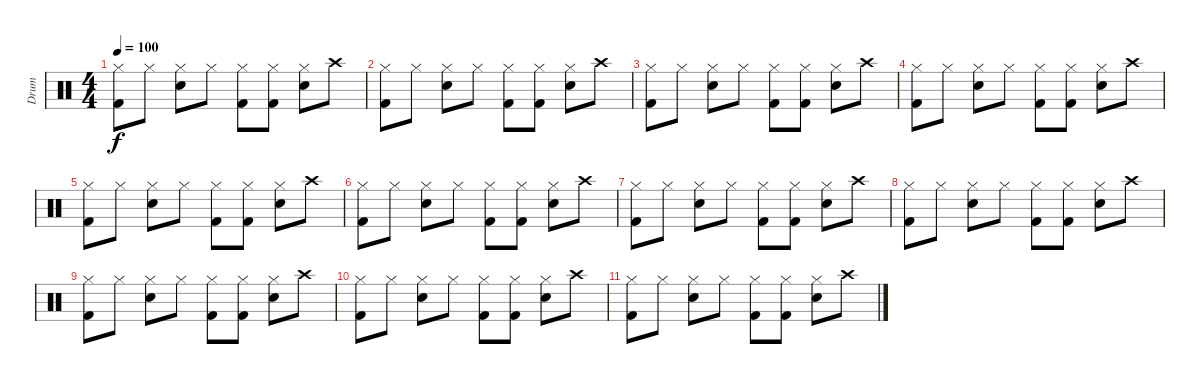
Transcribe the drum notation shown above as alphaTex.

\track ("Drum" "Drum") {instrument percussion}
\staff {score}
\articulation defaults
\ts (4 4)
\tempo 100
\clef neutral
\ks c
("Hi-Hat (closed)" "Kick (hit) 2").8{dy f} "Hi-Hat (closed)".8 ("Hi-Hat (closed)" "Snare (hit) 2").8 "Hi-Hat (closed)".8 ("Hi-Hat (closed)" "Kick (hit) 2").8 ("Hi-Hat (closed)" "Kick (hit) 2").8 ("Hi-Hat (closed)" "Snare (hit) 2").8 "Crash high (hit)".8 |
("Hi-Hat (closed)" "Kick (hit) 2").8 "Hi-Hat (closed)".8 ("Hi-Hat (closed)" "Snare (hit) 2").8 "Hi-Hat (closed)".8 ("Hi-Hat (closed)" "Kick (hit) 2").8 ("Hi-Hat (closed)" "Kick (hit) 2").8 ("Hi-Hat (closed)" "Snare (hit) 2").8 "Crash high (hit)".8 |
("Hi-Hat (closed)" "Kick (hit) 2").8 "Hi-Hat (closed)".8 ("Hi-Hat (closed)" "Snare (hit) 2").8 "Hi-Hat (closed)".8 ("Hi-Hat (closed)" "Kick (hit) 2").8 ("Hi-Hat (closed)" "Kick (hit) 2").8 ("Hi-Hat (closed)" "Snare (hit) 2").8 "Crash high (hit)".8 |
("Hi-Hat (closed)" "Kick (hit) 2").8 "Hi-Hat (closed)".8 ("Hi-Hat (closed)" "Snare (hit) 2").8 "Hi-Hat (closed)".8 ("Hi-Hat (closed)" "Kick (hit) 2").8 ("Hi-Hat (closed)" "Kick (hit) 2").8 ("Hi-Hat (closed)" "Snare (hit) 2").8 "Crash high (hit)".8 |
("Hi-Hat (closed)" "Kick (hit) 2").8 "Hi-Hat (closed)".8 ("Hi-Hat (closed)" "Snare (hit) 2").8 "Hi-Hat (closed)".8 ("Hi-Hat (closed)" "Kick (hit) 2").8 ("Hi-Hat (closed)" "Kick (hit) 2").8 ("Hi-Hat (closed)" "Snare (hit) 2").8 "Crash high (hit)".8 |
("Hi-Hat (closed)" "Kick (hit) 2").8 "Hi-Hat (closed)".8 ("Hi-Hat (closed)" "Snare (hit) 2").8 "Hi-Hat (closed)".8 ("Hi-Hat (closed)" "Kick (hit) 2").8 ("Hi-Hat (closed)" "Kick (hit) 2").8 ("Hi-Hat (closed)" "Snare (hit) 2").8 "Crash high (hit)".8 |
("Hi-Hat (closed)" "Kick (hit) 2").8 "Hi-Hat (closed)".8 ("Hi-Hat (closed)" "Snare (hit) 2").8 "Hi-Hat (closed)".8 ("Hi-Hat (closed)" "Kick (hit) 2").8 ("Hi-Hat (closed)" "Kick (hit) 2").8 ("Hi-Hat (closed)" "Snare (hit) 2").8 "Crash high (hit)".8 |
("Hi-Hat (closed)" "Kick (hit) 2").8 "Hi-Hat (closed)".8 ("Hi-Hat (closed)" "Snare (hit) 2").8 "Hi-Hat (closed)".8 ("Hi-Hat (closed)" "Kick (hit) 2").8 ("Hi-Hat (closed)" "Kick (hit) 2").8 ("Hi-Hat (closed)" "Snare (hit) 2").8 "Crash high (hit)".8 |
("Hi-Hat (closed)" "Kick (hit) 2").8 "Hi-Hat (closed)".8 ("Hi-Hat (closed)" "Snare (hit) 2").8 "Hi-Hat (closed)".8 ("Hi-Hat (closed)" "Kick (hit) 2").8 ("Hi-Hat (closed)" "Kick (hit) 2").8 ("Hi-Hat (closed)" "Snare (hit) 2").8 "Crash high (hit)".8 |
("Hi-Hat (closed)" "Kick (hit) 2").8 "Hi-Hat (closed)".8 ("Hi-Hat (closed)" "Snare (hit) 2").8 "Hi-Hat (closed)".8 ("Hi-Hat (closed)" "Kick (hit) 2").8 ("Hi-Hat (closed)" "Kick (hit) 2").8 ("Hi-Hat (closed)" "Snare (hit) 2").8 "Crash high (hit)".8 |
("Hi-Hat (closed)" "Kick (hit) 2").8 "Hi-Hat (closed)".8 ("Hi-Hat (closed)" "Snare (hit) 2").8 "Hi-Hat (closed)".8 ("Hi-Hat (closed)" "Kick (hit) 2").8 ("Hi-Hat (closed)" "Kick (hit) 2").8 ("Hi-Hat (closed)" "Snare (hit) 2").8 "Crash high (hit)".8
